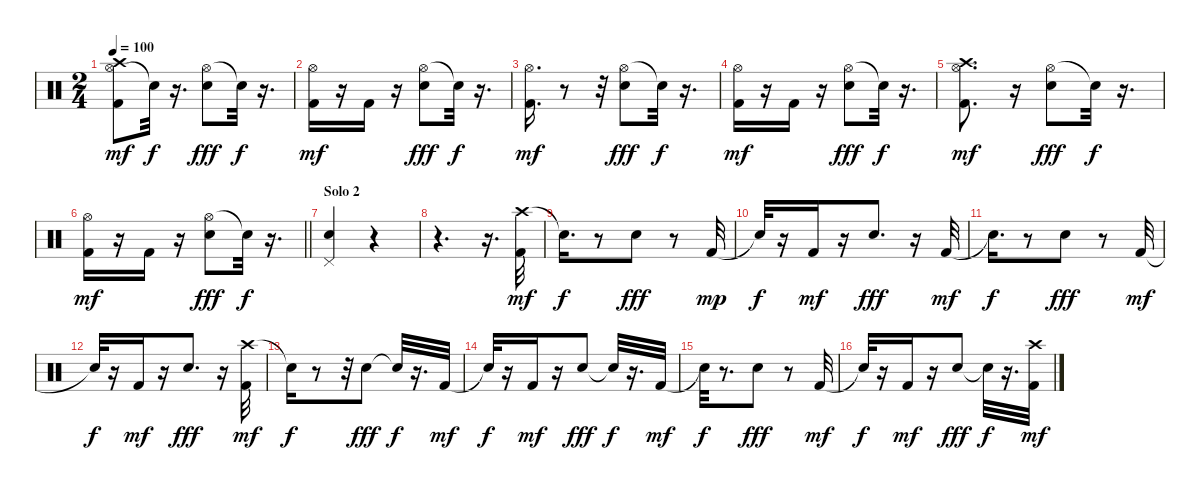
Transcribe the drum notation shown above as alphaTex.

\track "" {instrument percussion}
\staff {score}
\articulation defaults
\ts (2 4)
\tempo 100
\clef neutral
\ks c
("Hi-Hat (open)" "Crash high (hit)" "Kick (hit) 2").8{dy mf} "Snare (hit)"{t}.32{dy f} r.16{d} ("Hi-Hat (open)" "Snare (hit) 2").8{dy fff} "Snare (hit)"{t}.32{dy f} r.16{d} |
("Hi-Hat (open)" "Kick (hit) 2").16{dy mf} r.16 "Kick (hit) 2".16 r.16 ("Hi-Hat (open)" "Snare (hit) 2").8{dy fff} "Snare (hit)"{t}.32{dy f} r.16{d} |
("Hi-Hat (open)" "Kick (hit) 2").16{d dy mf} r.8 r.32 ("Hi-Hat (open)" "Snare (hit) 2").8{dy fff} "Snare (hit)"{t}.32{dy f} r.16{d} |
("Hi-Hat (open)" "Kick (hit) 2").16{dy mf} r.16 "Kick (hit) 2".16 r.16 ("Hi-Hat (open)" "Snare (hit) 2").8{dy fff} "Snare (hit)"{t}.32{dy f} r.16{d} |
("Hi-Hat (open)" "Crash high (hit)" "Kick (hit) 2").8{d dy mf} r.16 ("Hi-Hat (open)" "Snare (hit) 2").8{dy fff} "Snare (hit)"{t}.32{dy f} r.16{d} |
\barLineRight lightlight
("Hi-Hat (open)" "Kick (hit) 2").16{dy mf} r.16 "Kick (hit) 2".16 r.16 ("Hi-Hat (open)" "Snare (hit) 2").8{dy fff} "Snare (hit)"{t}.32{dy f} r.16{d} |
\section ("" "Solo 2")
("Pedal Hi-Hat (hit)" "Snare (hit) 2").4 r.4 |
r.4{d} r.16{d} ("Crash high (hit)" "Kick (hit) 2").32{dy mf} |
"Snare (hit)"{t}.16{d dy f} r.8 "Snare (hit) 2".8{dy fff} r.8 "Kick (hit) 2".32{dy mp} |
"Snare (hit)"{t}.32{dy f} r.16 "Kick (hit) 2".16{dy mf} r.16 "Snare (hit) 2".8{d dy fff} r.16 "Kick (hit) 2".32{dy mf} |
"Snare (hit)"{t}.16{d dy f} r.8 "Snare (hit) 2".8{dy fff} r.8 "Kick (hit) 2".32{dy mf} |
"Snare (hit)"{t}.32{dy f} r.16 "Kick (hit) 2".16{dy mf} r.16 "Snare (hit) 2".8{d dy fff} r.16 ("Crash high (hit)" "Kick (hit) 2").32{dy mf} |
"Snare (hit)"{t}.16{dy f} r.8 r.32 "Snare (hit) 2".8{dy fff} "Snare (hit)"{t}.32{dy f} r.16{d} "Kick (hit) 2".32{dy mf} |
"Snare (hit)"{t}.32{dy f} r.16 "Kick (hit) 2".16{dy mf} r.16 "Snare (hit) 2".8{dy fff} "Snare (hit)"{t}.32{dy f} r.16{d} "Kick (hit) 2".32{dy mf} |
"Snare (hit)"{t}.32{dy f} r.8{d} "Snare (hit) 2".8{dy fff} r.8 "Kick (hit) 2".32{dy mf} |
"Snare (hit)"{t}.32{dy f} r.16 "Kick (hit) 2".16{dy mf} r.16 "Snare (hit) 2".8{dy fff} "Snare (hit)"{t}.32{dy f} r.16{d} ("Crash high (hit)" "Kick (hit) 2").32{dy mf}
